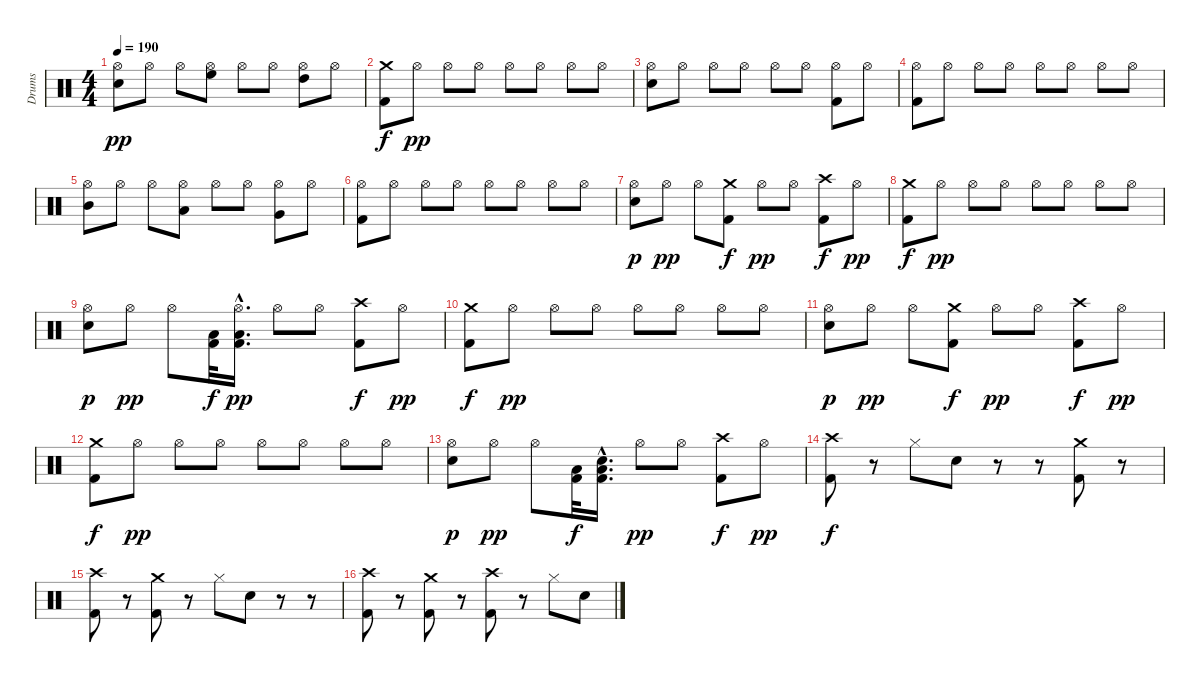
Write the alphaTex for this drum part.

\track ("Drums" "Drums") {instrument percussion}
\staff {score}
\articulation defaults
\ts (4 4)
\tempo 190
\clef neutral
\ks c
("Hi-Hat (open)" "Snare (hit) 2").8{dy pp} "Hi-Hat (open)".8 "Hi-Hat (open)".8 ("Hi-Hat (open)" "High Floor Tom (hit)").8 "Hi-Hat (open)".8 "Hi-Hat (open)".8 ("Hi-Hat (open)" "High Tom (hit)").8 "Hi-Hat (open)".8 |
("Crash medium (hit)" "Kick (hit) 2").8{dy f} "Hi-Hat (open)".8{dy pp} "Hi-Hat (open)".8 "Hi-Hat (open)".8 "Hi-Hat (open)".8 "Hi-Hat (open)".8 "Hi-Hat (open)".8 "Hi-Hat (open)".8 |
("Hi-Hat (open)" "Snare (hit) 2").8 "Hi-Hat (open)".8 "Hi-Hat (open)".8 "Hi-Hat (open)".8 "Hi-Hat (open)".8 "Hi-Hat (open)".8 ("Hi-Hat (open)" "Kick (hit) 2").8 "Hi-Hat (open)".8 |
("Hi-Hat (open)" "Kick (hit) 2").8 "Hi-Hat (open)".8 "Hi-Hat (open)".8 "Hi-Hat (open)".8 "Hi-Hat (open)".8 "Hi-Hat (open)".8 "Hi-Hat (open)".8 "Hi-Hat (open)".8 |
("Hi-Hat (open)" "Mid Tom (hit)").8 "Hi-Hat (open)".8 "Hi-Hat (open)".8 ("Hi-Hat (open)" "Low Tom (hit)").8 "Hi-Hat (open)".8 "Hi-Hat (open)".8 ("Hi-Hat (open)" "Very Low Tom (hit)").8 "Hi-Hat (open)".8 |
("Hi-Hat (open)" "Kick (hit) 2").8 "Hi-Hat (open)".8 "Hi-Hat (open)".8 "Hi-Hat (open)".8 "Hi-Hat (open)".8 "Hi-Hat (open)".8 "Hi-Hat (open)".8 "Hi-Hat (open)".8 |
("Hi-Hat (open)" "Snare (hit) 2").8{dy p} "Hi-Hat (open)".8{dy pp} "Hi-Hat (open)".8 ("Crash medium (hit)" "Kick (hit) 2").8{dy f} "Hi-Hat (open)".8{dy pp} "Hi-Hat (open)".8 ("Crash high (hit)" "Kick (hit) 2").8{dy f} "Hi-Hat (open)".8{dy pp} |
("Crash medium (hit)" "Kick (hit) 2").8{dy f} "Hi-Hat (open)".8{dy pp} "Hi-Hat (open)".8 "Hi-Hat (open)".8 "Hi-Hat (open)".8 "Hi-Hat (open)".8 "Hi-Hat (open)".8 "Hi-Hat (open)".8 |
("Hi-Hat (open)" "Snare (hit) 2").8{dy p} "Hi-Hat (open)".8{dy pp} "Hi-Hat (open)".8 ("Low Floor Tom (hit)" "Kick (hit) 2").32{dy f} ("Hi-Hat (open)"{hac} "Low Floor Tom (hit)"{hac} "Kick (hit) 2"{hac}).16{d dy pp} "Hi-Hat (open)".8 "Hi-Hat (open)".8 ("Crash high (hit)" "Kick (hit) 2").8{dy f} "Hi-Hat (open)".8{dy pp} |
("Crash medium (hit)" "Kick (hit) 2").8{dy f} "Hi-Hat (open)".8{dy pp} "Hi-Hat (open)".8 "Hi-Hat (open)".8 "Hi-Hat (open)".8 "Hi-Hat (open)".8 "Hi-Hat (open)".8 "Hi-Hat (open)".8 |
("Hi-Hat (open)" "Snare (hit) 2").8{dy p} "Hi-Hat (open)".8{dy pp} "Hi-Hat (open)".8 ("Crash medium (hit)" "Kick (hit) 2").8{dy f} "Hi-Hat (open)".8{dy pp} "Hi-Hat (open)".8 ("Crash high (hit)" "Kick (hit) 2").8{dy f} "Hi-Hat (open)".8{dy pp} |
("Crash medium (hit)" "Kick (hit) 2").8{dy f} "Hi-Hat (open)".8{dy pp} "Hi-Hat (open)".8 "Hi-Hat (open)".8 "Hi-Hat (open)".8 "Hi-Hat (open)".8 "Hi-Hat (open)".8 "Hi-Hat (open)".8 |
("Hi-Hat (open)" "Snare (hit) 2").8{dy p} "Hi-Hat (open)".8{dy pp} "Hi-Hat (open)".8 ("Low Floor Tom (hit)" "Kick (hit) 2").32{dy f} ("Low Floor Tom (hit)"{hac} "Snare (hit) 2"{hac} "Kick (hit) 2"{hac}).16{d} "Hi-Hat (open)".8{dy pp} "Hi-Hat (open)".8 ("Crash high (hit)" "Kick (hit) 2").8{dy f} "Hi-Hat (open)".8{dy pp} |
("Crash high (hit)" "Kick (hit) 2").8{dy f} r.8 "Hi-Hat (closed)".8 "Snare (hit) 2".8 r.8 r.8 ("Crash medium (hit)" "Kick (hit) 2").8 r.8 |
("Crash high (hit)" "Kick (hit) 2").8 r.8 ("Crash medium (hit)" "Kick (hit) 2").8 r.8 "Hi-Hat (closed)".8 "Snare (hit) 2".8 r.8 r.8 |
("Crash high (hit)" "Kick (hit) 2").8 r.8 ("Crash medium (hit)" "Kick (hit) 2").8 r.8 ("Crash high (hit)" "Kick (hit) 2").8 r.8 "Hi-Hat (closed)".8 "Snare (hit) 2".8
